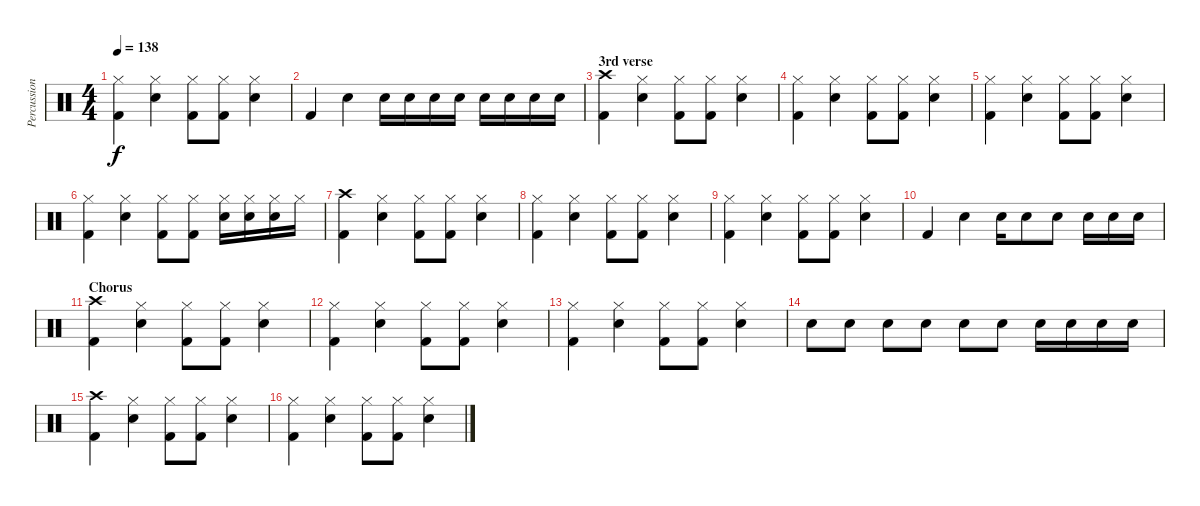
\track ("Percussion" "Percussion") {instrument percussion}
\staff {score}
\articulation defaults
\ts (4 4)
\tempo 138
\clef neutral
\ks c
("Kick (hit) 2" "Hi-Hat (closed)").4{dy f} ("Electric Snare (hit)" "Hi-Hat (closed)").4 ("Kick (hit) 2" "Hi-Hat (closed)").8 ("Kick (hit) 2" "Hi-Hat (closed)").8 ("Electric Snare (hit)" "Hi-Hat (closed)").4 |
"Kick (hit) 2".4 "Electric Snare (hit)".4 "Electric Snare (hit)".16 "Electric Snare (hit)".16 "Electric Snare (hit)".16 "Electric Snare (hit)".16 "Electric Snare (hit)".16 "Electric Snare (hit)".16 "Electric Snare (hit)".16 "Electric Snare (hit)".16 |
\section ("" "3rd verse")
("Kick (hit) 2" "Crash high (hit)").4 ("Electric Snare (hit)" "Hi-Hat (closed)").4 ("Kick (hit) 2" "Hi-Hat (closed)").8 ("Kick (hit) 2" "Hi-Hat (closed)").8 ("Electric Snare (hit)" "Hi-Hat (closed)").4 |
("Kick (hit) 2" "Hi-Hat (closed)").4 ("Electric Snare (hit)" "Hi-Hat (closed)").4 ("Kick (hit) 2" "Hi-Hat (closed)").8 ("Kick (hit) 2" "Hi-Hat (closed)").8 ("Electric Snare (hit)" "Hi-Hat (closed)").4 |
("Kick (hit) 2" "Hi-Hat (closed)").4 ("Electric Snare (hit)" "Hi-Hat (closed)").4 ("Kick (hit) 2" "Hi-Hat (closed)").8 ("Kick (hit) 2" "Hi-Hat (closed)").8 ("Electric Snare (hit)" "Hi-Hat (closed)").4 |
("Kick (hit) 2" "Hi-Hat (closed)").4 ("Electric Snare (hit)" "Hi-Hat (closed)").4 ("Kick (hit) 2" "Hi-Hat (closed)").8 ("Kick (hit) 2" "Hi-Hat (closed)").8 ("Electric Snare (hit)" "Hi-Hat (closed)").16 ("Electric Snare (hit)" "Hi-Hat (closed)").16 ("Electric Snare (hit)" "Hi-Hat (closed)").16 "Hi-Hat (closed)".16 |
("Kick (hit) 2" "Crash high (hit)").4 ("Electric Snare (hit)" "Hi-Hat (closed)").4 ("Kick (hit) 2" "Hi-Hat (closed)").8 ("Kick (hit) 2" "Hi-Hat (closed)").8 ("Electric Snare (hit)" "Hi-Hat (closed)").4 |
("Kick (hit) 2" "Hi-Hat (closed)").4 ("Electric Snare (hit)" "Hi-Hat (closed)").4 ("Kick (hit) 2" "Hi-Hat (closed)").8 ("Kick (hit) 2" "Hi-Hat (closed)").8 ("Electric Snare (hit)" "Hi-Hat (closed)").4 |
("Kick (hit) 2" "Hi-Hat (closed)").4 ("Electric Snare (hit)" "Hi-Hat (closed)").4 ("Kick (hit) 2" "Hi-Hat (closed)").8 ("Kick (hit) 2" "Hi-Hat (closed)").8 ("Electric Snare (hit)" "Hi-Hat (closed)").4 |
"Kick (hit) 2".4 "Electric Snare (hit)".4 "Electric Snare (hit)".16 "Electric Snare (hit)".8 "Electric Snare (hit)".8 "Electric Snare (hit)".16 "Electric Snare (hit)".16 "Electric Snare (hit)".16 |
\section ("" "Chorus")
("Kick (hit) 2" "Crash high (hit)").4 ("Electric Snare (hit)" "Hi-Hat (closed)").4 ("Kick (hit) 2" "Hi-Hat (closed)").8 ("Kick (hit) 2" "Hi-Hat (closed)").8 ("Electric Snare (hit)" "Hi-Hat (closed)").4 |
("Kick (hit) 2" "Hi-Hat (closed)").4 ("Electric Snare (hit)" "Hi-Hat (closed)").4 ("Kick (hit) 2" "Hi-Hat (closed)").8 ("Kick (hit) 2" "Hi-Hat (closed)").8 ("Electric Snare (hit)" "Hi-Hat (closed)").4 |
("Kick (hit) 2" "Hi-Hat (closed)").4 ("Electric Snare (hit)" "Hi-Hat (closed)").4 ("Kick (hit) 2" "Hi-Hat (closed)").8 ("Kick (hit) 2" "Hi-Hat (closed)").8 ("Electric Snare (hit)" "Hi-Hat (closed)").4 |
"Electric Snare (hit)".8 "Electric Snare (hit)".8 "Electric Snare (hit)".8 "Electric Snare (hit)".8 "Electric Snare (hit)".8 "Electric Snare (hit)".8 "Electric Snare (hit)".16 "Electric Snare (hit)".16 "Electric Snare (hit)".16 "Electric Snare (hit)".16 |
("Kick (hit) 2" "Crash high (hit)").4 ("Electric Snare (hit)" "Hi-Hat (closed)").4 ("Kick (hit) 2" "Hi-Hat (closed)").8 ("Kick (hit) 2" "Hi-Hat (closed)").8 ("Electric Snare (hit)" "Hi-Hat (closed)").4 |
("Kick (hit) 2" "Hi-Hat (closed)").4 ("Electric Snare (hit)" "Hi-Hat (closed)").4 ("Kick (hit) 2" "Hi-Hat (closed)").8 ("Kick (hit) 2" "Hi-Hat (closed)").8 ("Electric Snare (hit)" "Hi-Hat (closed)").4
